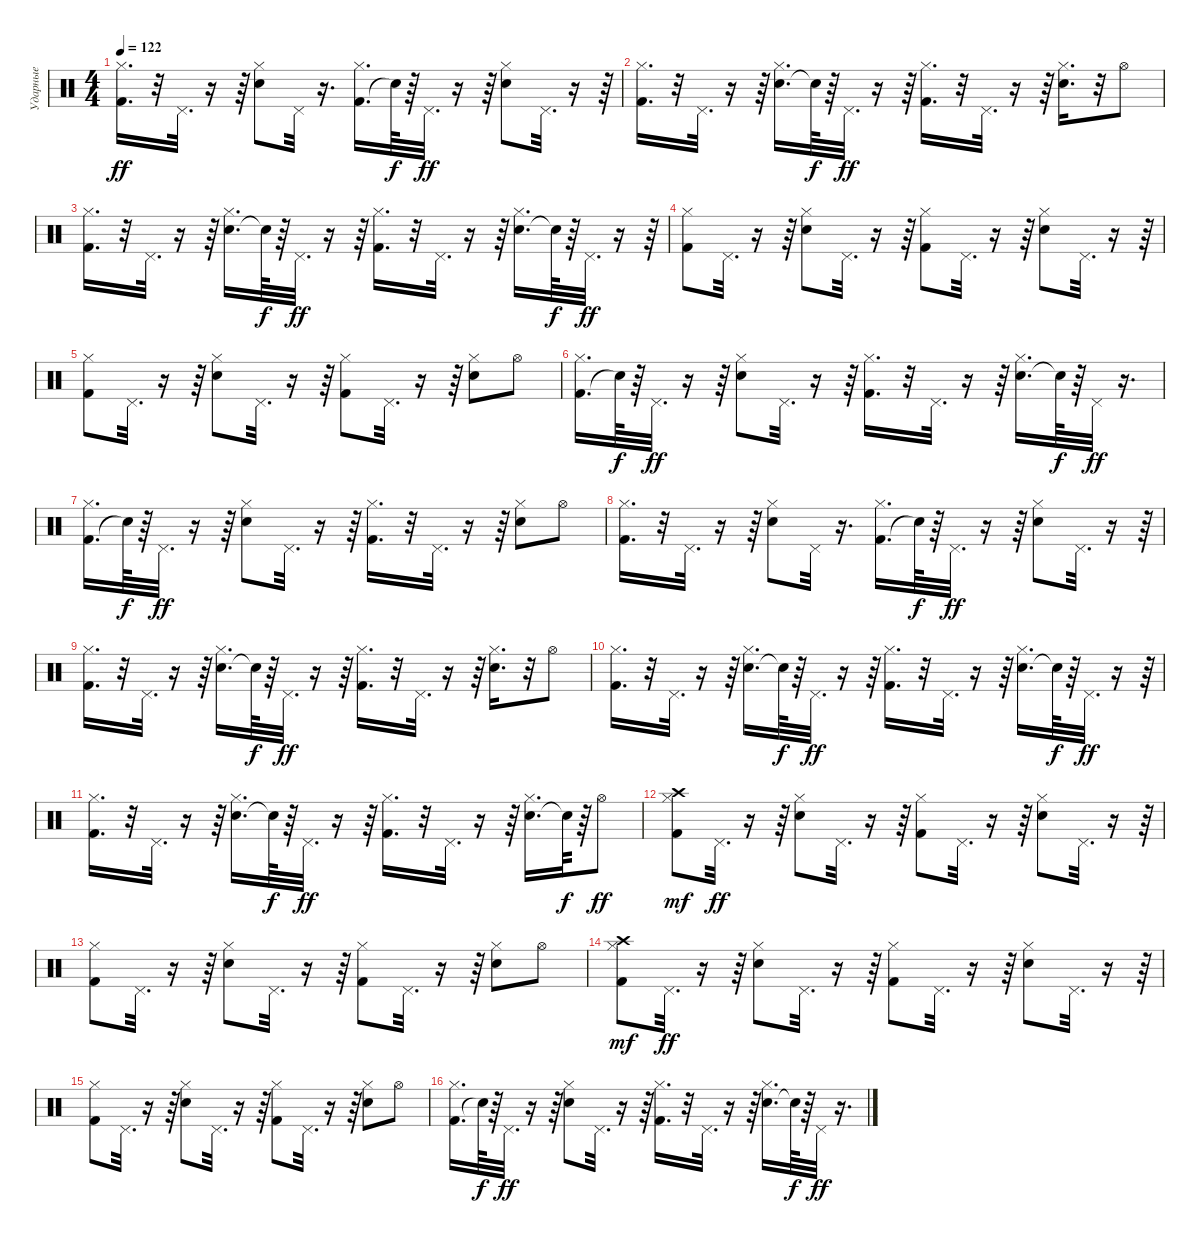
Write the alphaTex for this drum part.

\track ("Ударные" "Ударные") {instrument percussion}
\staff {score}
\articulation defaults
\ts (4 4)
\tempo 122
\clef neutral
\ks c
("Kick (hit) 2" "Hi-Hat (closed)").16{d dy ff} r.32 "Pedal Hi-Hat (hit)".32{d} r.16 r.64 ("Snare (hit) 2" "Hi-Hat (closed)").8 "Pedal Hi-Hat (hit)".32 r.16{d} ("Kick (hit) 2" "Hi-Hat (closed)").16{d} "Snare (hit)"{t}.64{dy f} r.64 "Pedal Hi-Hat (hit)".32{d dy ff} r.16 r.64 ("Snare (hit) 2" "Hi-Hat (closed)").8 "Pedal Hi-Hat (hit)".32{d} r.16 r.64 |
("Kick (hit) 2" "Hi-Hat (closed)").16{d} r.32 "Pedal Hi-Hat (hit)".32{d} r.16 r.64 ("Snare (hit) 2" "Hi-Hat (closed)").16{d} "Snare (hit)"{t}.64{dy f} r.64 "Pedal Hi-Hat (hit)".32{d dy ff} r.16 r.64 ("Kick (hit) 2" "Hi-Hat (closed)").16{d} r.32 "Pedal Hi-Hat (hit)".32{d} r.16 r.64 ("Snare (hit) 2" "Hi-Hat (closed)").16{d} r.32 "Hi-Hat (open)".8 |
("Kick (hit) 2" "Hi-Hat (closed)").16{d} r.32 "Pedal Hi-Hat (hit)".32{d} r.16 r.64 ("Snare (hit) 2" "Hi-Hat (closed)").16{d} "Snare (hit)"{t}.64{dy f} r.64 "Pedal Hi-Hat (hit)".32{d dy ff} r.16 r.64 ("Kick (hit) 2" "Hi-Hat (closed)").16{d} r.32 "Pedal Hi-Hat (hit)".32{d} r.16 r.64 ("Snare (hit) 2" "Hi-Hat (closed)").16{d} "Snare (hit)"{t}.64{dy f} r.64 "Pedal Hi-Hat (hit)".32{d dy ff} r.16 r.64 |
("Kick (hit) 2" "Hi-Hat (closed)").8 "Pedal Hi-Hat (hit)".32{d} r.16 r.64 ("Snare (hit) 2" "Hi-Hat (closed)").8 "Pedal Hi-Hat (hit)".32{d} r.16 r.64 ("Kick (hit) 2" "Hi-Hat (closed)").8 "Pedal Hi-Hat (hit)".32{d} r.16 r.64 ("Snare (hit) 2" "Hi-Hat (closed)").8 "Pedal Hi-Hat (hit)".32{d} r.16 r.64 |
("Kick (hit) 2" "Hi-Hat (closed)").8 "Pedal Hi-Hat (hit)".32{d} r.16 r.64 ("Snare (hit) 2" "Hi-Hat (closed)").8 "Pedal Hi-Hat (hit)".32{d} r.16 r.64 ("Kick (hit) 2" "Hi-Hat (closed)").8 "Pedal Hi-Hat (hit)".32{d} r.16 r.64 ("Snare (hit) 2" "Hi-Hat (closed)").8 "Hi-Hat (open)".8 |
("Kick (hit) 2" "Hi-Hat (closed)").16{d} "Snare (hit)"{t}.64{dy f} r.64 "Pedal Hi-Hat (hit)".32{d dy ff} r.16 r.64 ("Snare (hit) 2" "Hi-Hat (closed)").8 "Pedal Hi-Hat (hit)".32{d} r.16 r.64 ("Kick (hit) 2" "Hi-Hat (closed)").16{d} r.32 "Pedal Hi-Hat (hit)".32{d} r.16 r.64 ("Snare (hit) 2" "Hi-Hat (closed)").16{d} "Snare (hit)"{t}.64{dy f} r.64 "Pedal Hi-Hat (hit)".32{dy ff} r.16{d} |
("Kick (hit) 2" "Hi-Hat (closed)").16{d} "Snare (hit)"{t}.64{dy f} r.64 "Pedal Hi-Hat (hit)".32{d dy ff} r.16 r.64 ("Snare (hit) 2" "Hi-Hat (closed)").8 "Pedal Hi-Hat (hit)".32{d} r.16 r.64 ("Kick (hit) 2" "Hi-Hat (closed)").16{d} r.32 "Pedal Hi-Hat (hit)".32{d} r.16 r.64 ("Snare (hit) 2" "Hi-Hat (closed)").8 "Hi-Hat (open)".8 |
("Kick (hit) 2" "Hi-Hat (closed)").16{d} r.32 "Pedal Hi-Hat (hit)".32{d} r.16 r.64 ("Snare (hit) 2" "Hi-Hat (closed)").8 "Pedal Hi-Hat (hit)".32 r.16{d} ("Kick (hit) 2" "Hi-Hat (closed)").16{d} "Snare (hit)"{t}.64{dy f} r.64 "Pedal Hi-Hat (hit)".32{d dy ff} r.16 r.64 ("Snare (hit) 2" "Hi-Hat (closed)").8 "Pedal Hi-Hat (hit)".32{d} r.16 r.64 |
("Kick (hit) 2" "Hi-Hat (closed)").16{d} r.32 "Pedal Hi-Hat (hit)".32{d} r.16 r.64 ("Snare (hit) 2" "Hi-Hat (closed)").16{d} "Snare (hit)"{t}.64{dy f} r.64 "Pedal Hi-Hat (hit)".32{d dy ff} r.16 r.64 ("Kick (hit) 2" "Hi-Hat (closed)").16{d} r.32 "Pedal Hi-Hat (hit)".32{d} r.16 r.64 ("Snare (hit) 2" "Hi-Hat (closed)").16{d} r.32 "Hi-Hat (open)".8 |
("Kick (hit) 2" "Hi-Hat (closed)").16{d} r.32 "Pedal Hi-Hat (hit)".32{d} r.16 r.64 ("Snare (hit) 2" "Hi-Hat (closed)").16{d} "Snare (hit)"{t}.64{dy f} r.64 "Pedal Hi-Hat (hit)".32{d dy ff} r.16 r.64 ("Kick (hit) 2" "Hi-Hat (closed)").16{d} r.32 "Pedal Hi-Hat (hit)".32{d} r.16 r.64 ("Snare (hit) 2" "Hi-Hat (closed)").16{d} "Snare (hit)"{t}.64{dy f} r.64 "Pedal Hi-Hat (hit)".32{d dy ff} r.16 r.64 |
("Kick (hit) 2" "Hi-Hat (closed)").16{d} r.32 "Pedal Hi-Hat (hit)".32{d} r.16 r.64 ("Snare (hit) 2" "Hi-Hat (closed)").16{d} "Snare (hit)"{t}.64{dy f} r.64 "Pedal Hi-Hat (hit)".32{d dy ff} r.16 r.64 ("Kick (hit) 2" "Hi-Hat (closed)").16{d} r.32 "Pedal Hi-Hat (hit)".32{d} r.16 r.64 ("Snare (hit) 2" "Hi-Hat (closed)").16{d} "Snare (hit)"{t}.64{dy f} r.64 "Hi-Hat (open)".8{dy ff} |
("Kick (hit) 2" "Hi-Hat (closed)" "Crash high (hit)").8{dy mf} "Pedal Hi-Hat (hit)".32{d dy ff} r.16 r.64 ("Snare (hit) 2" "Hi-Hat (closed)").8 "Pedal Hi-Hat (hit)".32{d} r.16 r.64 ("Kick (hit) 2" "Hi-Hat (closed)").8 "Pedal Hi-Hat (hit)".32{d} r.16 r.64 ("Snare (hit) 2" "Hi-Hat (closed)").8 "Pedal Hi-Hat (hit)".32{d} r.16 r.64 |
("Kick (hit) 2" "Hi-Hat (closed)").8 "Pedal Hi-Hat (hit)".32{d} r.16 r.64 ("Snare (hit) 2" "Hi-Hat (closed)").8 "Pedal Hi-Hat (hit)".32{d} r.16 r.64 ("Kick (hit) 2" "Hi-Hat (closed)").8 "Pedal Hi-Hat (hit)".32{d} r.16 r.64 ("Snare (hit) 2" "Hi-Hat (closed)").8 "Hi-Hat (open)".8 |
("Kick (hit) 2" "Hi-Hat (closed)" "Crash high (hit)").8{dy mf} "Pedal Hi-Hat (hit)".32{d dy ff} r.16 r.64 ("Snare (hit) 2" "Hi-Hat (closed)").8 "Pedal Hi-Hat (hit)".32{d} r.16 r.64 ("Kick (hit) 2" "Hi-Hat (closed)").8 "Pedal Hi-Hat (hit)".32{d} r.16 r.64 ("Snare (hit) 2" "Hi-Hat (closed)").8 "Pedal Hi-Hat (hit)".32{d} r.16 r.64 |
("Kick (hit) 2" "Hi-Hat (closed)").8 "Pedal Hi-Hat (hit)".32{d} r.16 r.64 ("Snare (hit) 2" "Hi-Hat (closed)").8 "Pedal Hi-Hat (hit)".32{d} r.16 r.64 ("Kick (hit) 2" "Hi-Hat (closed)").8 "Pedal Hi-Hat (hit)".32{d} r.16 r.64 ("Snare (hit) 2" "Hi-Hat (closed)").8 "Hi-Hat (open)".8 |
("Kick (hit) 2" "Hi-Hat (closed)").16{d} "Snare (hit)"{t}.64{dy f} r.64 "Pedal Hi-Hat (hit)".32{d dy ff} r.16 r.64 ("Snare (hit) 2" "Hi-Hat (closed)").8 "Pedal Hi-Hat (hit)".32{d} r.16 r.64 ("Kick (hit) 2" "Hi-Hat (closed)").16{d} r.32 "Pedal Hi-Hat (hit)".32{d} r.16 r.64 ("Snare (hit) 2" "Hi-Hat (closed)").16{d} "Snare (hit)"{t}.64{dy f} r.64 "Pedal Hi-Hat (hit)".32{dy ff} r.16{d}
